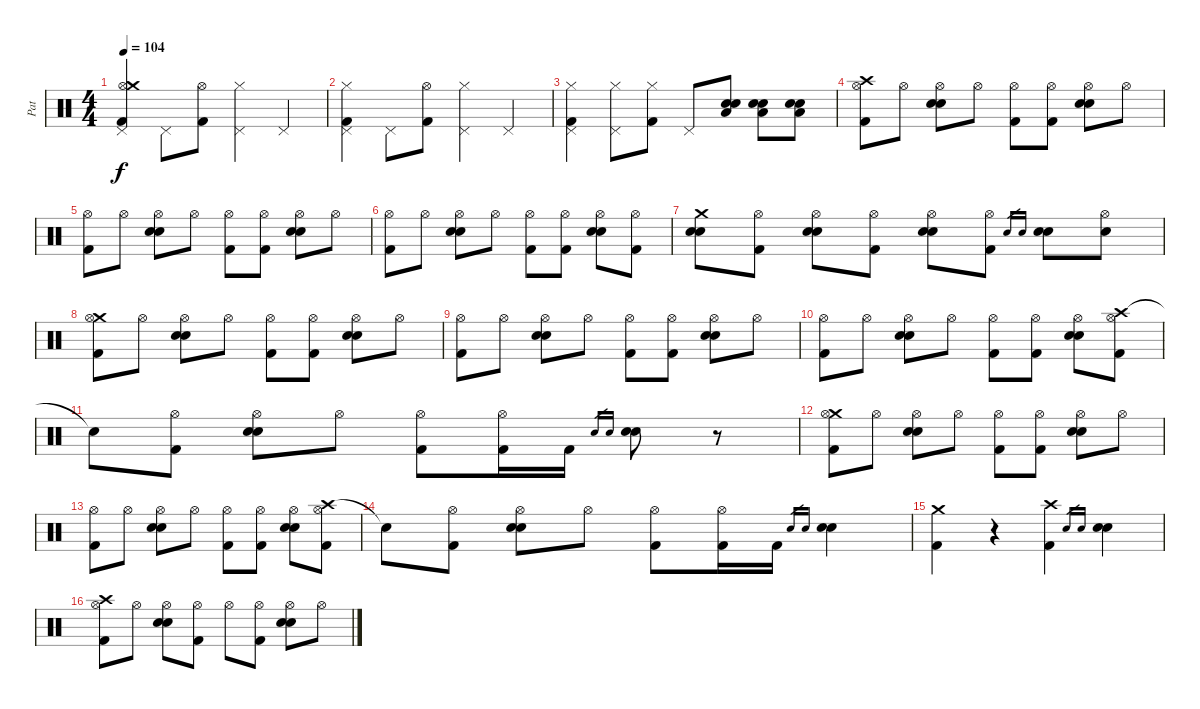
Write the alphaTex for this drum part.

\track ("Pat" "Pat") {instrument percussion}
\staff {score}
\articulation defaults
\ts (4 4)
\tempo 104
\clef neutral
\ks c
("Pedal Hi-Hat (hit)" "Hi-Hat (open)" "Crash medium (hit)" "Kick (hit) 2").4{dy f} "Pedal Hi-Hat (hit)".8 ("Hi-Hat (open)" "Kick (hit) 2").8 ("Pedal Hi-Hat (hit)" "Hi-Hat (closed)").4 "Pedal Hi-Hat (hit)".4 |
("Pedal Hi-Hat (hit)" "Hi-Hat (closed)" "Kick (hit) 2").4 "Pedal Hi-Hat (hit)".8 ("Hi-Hat (open)" "Kick (hit) 2").8 ("Pedal Hi-Hat (hit)" "Hi-Hat (closed)").4 "Pedal Hi-Hat (hit)".4 |
("Pedal Hi-Hat (hit)" "Hi-Hat (closed)" "Kick (hit) 2").4 ("Pedal Hi-Hat (hit)" "Hi-Hat (closed)").8 ("Hi-Hat (closed)" "Kick (hit) 2").8 "Pedal Hi-Hat (hit)".8 ("Electric Snare (hit)" "Snare (hit) 2" "Low Tom (hit)").8 ("Electric Snare (hit)" "Snare (hit) 2" "Low Tom (hit)").8 ("Electric Snare (hit)" "Snare (hit) 2" "Low Tom (hit)").8 |
("Crash high (hit)" "Hi-Hat (open)" "Kick (hit) 2").8 "Hi-Hat (open)".8 ("Hi-Hat (open)" "Electric Snare (hit)" "Snare (hit) 2").8 "Hi-Hat (open)".8 ("Hi-Hat (open)" "Kick (hit) 2").8 ("Hi-Hat (open)" "Kick (hit) 2").8 ("Hi-Hat (open)" "Electric Snare (hit)" "Snare (hit) 2").8 "Hi-Hat (open)".8 |
("Hi-Hat (open)" "Kick (hit) 2").8 "Hi-Hat (open)".8 ("Hi-Hat (open)" "Electric Snare (hit)" "Snare (hit) 2").8 "Hi-Hat (open)".8 ("Hi-Hat (open)" "Kick (hit) 2").8 ("Hi-Hat (open)" "Kick (hit) 2").8 ("Hi-Hat (open)" "Electric Snare (hit)" "Snare (hit) 2").8 "Hi-Hat (open)".8 |
("Hi-Hat (open)" "Kick (hit) 2").8 "Hi-Hat (open)".8 ("Hi-Hat (open)" "Electric Snare (hit)" "Snare (hit) 2").8 "Hi-Hat (open)".8 ("Hi-Hat (open)" "Kick (hit) 2").8 ("Hi-Hat (open)" "Kick (hit) 2").8 ("Hi-Hat (open)" "Electric Snare (hit)" "Snare (hit) 2").8 ("Hi-Hat (open)" "Kick (hit) 2").8 |
("Crash medium (hit)" "Electric Snare (hit)" "Snare (hit) 2").8 ("Hi-Hat (open)" "Kick (hit) 2").8 ("Hi-Hat (open)" "Electric Snare (hit)" "Snare (hit) 2").8 ("Hi-Hat (open)" "Kick (hit) 2").8 ("Hi-Hat (open)" "Electric Snare (hit)" "Snare (hit) 2").8 ("Hi-Hat (open)" "Kick (hit) 2").8 "Electric Snare (hit)".16{gr} "Snare (hit) 2".16{gr} ("Electric Snare (hit)" "Snare (hit) 2").8 ("Hi-Hat (open)" "Electric Snare (hit)").8 |
("Crash medium (hit)" "Hi-Hat (open)" "Kick (hit) 2").8 "Hi-Hat (open)".8 ("Hi-Hat (open)" "Electric Snare (hit)" "Snare (hit) 2").8 "Hi-Hat (open)".8 ("Hi-Hat (open)" "Kick (hit) 2").8 ("Hi-Hat (open)" "Kick (hit) 2").8 ("Hi-Hat (open)" "Electric Snare (hit)" "Snare (hit) 2").8 "Hi-Hat (open)".8 |
("Hi-Hat (open)" "Kick (hit) 2").8 "Hi-Hat (open)".8 ("Hi-Hat (open)" "Electric Snare (hit)" "Snare (hit) 2").8 "Hi-Hat (open)".8 ("Hi-Hat (open)" "Kick (hit) 2").8 ("Hi-Hat (open)" "Kick (hit) 2").8 ("Hi-Hat (open)" "Electric Snare (hit)" "Snare (hit) 2").8 "Hi-Hat (open)".8 |
("Hi-Hat (open)" "Kick (hit) 2").8 "Hi-Hat (open)".8 ("Hi-Hat (open)" "Electric Snare (hit)" "Snare (hit) 2").8 "Hi-Hat (open)".8 ("Hi-Hat (open)" "Kick (hit) 2").8 ("Hi-Hat (open)" "Kick (hit) 2").8 ("Hi-Hat (open)" "Electric Snare (hit)" "Snare (hit) 2").8 ("Crash high (hit)" "Hi-Hat (open)" "Kick (hit) 2").8 |
"Snare (hit)"{t}.8 ("Hi-Hat (open)" "Kick (hit) 2").8 ("Hi-Hat (open)" "Electric Snare (hit)" "Snare (hit) 2").8 "Hi-Hat (open)".8 ("Hi-Hat (open)" "Kick (hit) 2").8 ("Hi-Hat (open)" "Kick (hit) 2").16 "Kick (hit) 2".16 "Electric Snare (hit)".16{gr} "Snare (hit) 2".16{gr} ("Electric Snare (hit)" "Snare (hit) 2").8 r.8 |
("Crash medium (hit)" "Hi-Hat (open)" "Kick (hit) 2").8 "Hi-Hat (open)".8 ("Hi-Hat (open)" "Electric Snare (hit)" "Snare (hit) 2").8 "Hi-Hat (open)".8 ("Hi-Hat (open)" "Kick (hit) 2").8 ("Hi-Hat (open)" "Kick (hit) 2").8 ("Hi-Hat (open)" "Electric Snare (hit)" "Snare (hit) 2").8 "Hi-Hat (open)".8 |
("Hi-Hat (open)" "Kick (hit) 2").8 "Hi-Hat (open)".8 ("Hi-Hat (open)" "Electric Snare (hit)" "Snare (hit) 2").8 "Hi-Hat (open)".8 ("Hi-Hat (open)" "Kick (hit) 2").8 ("Hi-Hat (open)" "Kick (hit) 2").8 ("Hi-Hat (open)" "Electric Snare (hit)" "Snare (hit) 2").8 ("Crash high (hit)" "Hi-Hat (open)" "Kick (hit) 2").8 |
"Snare (hit)"{t}.8 ("Hi-Hat (open)" "Kick (hit) 2").8 ("Hi-Hat (open)" "Electric Snare (hit)" "Snare (hit) 2").8 "Hi-Hat (open)".8 ("Hi-Hat (open)" "Kick (hit) 2").8 ("Hi-Hat (open)" "Kick (hit) 2").16 "Kick (hit) 2".16 "Electric Snare (hit)".16{gr} "Snare (hit) 2".16{gr} ("Electric Snare (hit)" "Snare (hit) 2").4 |
("Crash medium (hit)" "Kick (hit) 2").4 r.4 ("Crash high (hit)" "Kick (hit) 2").4 "Electric Snare (hit)".16{gr} "Snare (hit) 2".16{gr} ("Electric Snare (hit)" "Snare (hit) 2").4 |
("Crash high (hit)" "Hi-Hat (open)" "Kick (hit) 2").8 "Hi-Hat (open)".8 ("Hi-Hat (open)" "Electric Snare (hit)" "Snare (hit) 2").8 ("Hi-Hat (open)" "Kick (hit) 2").8 "Hi-Hat (open)".8 ("Hi-Hat (open)" "Kick (hit) 2").8 ("Hi-Hat (open)" "Electric Snare (hit)" "Snare (hit) 2").8 "Hi-Hat (open)".8
